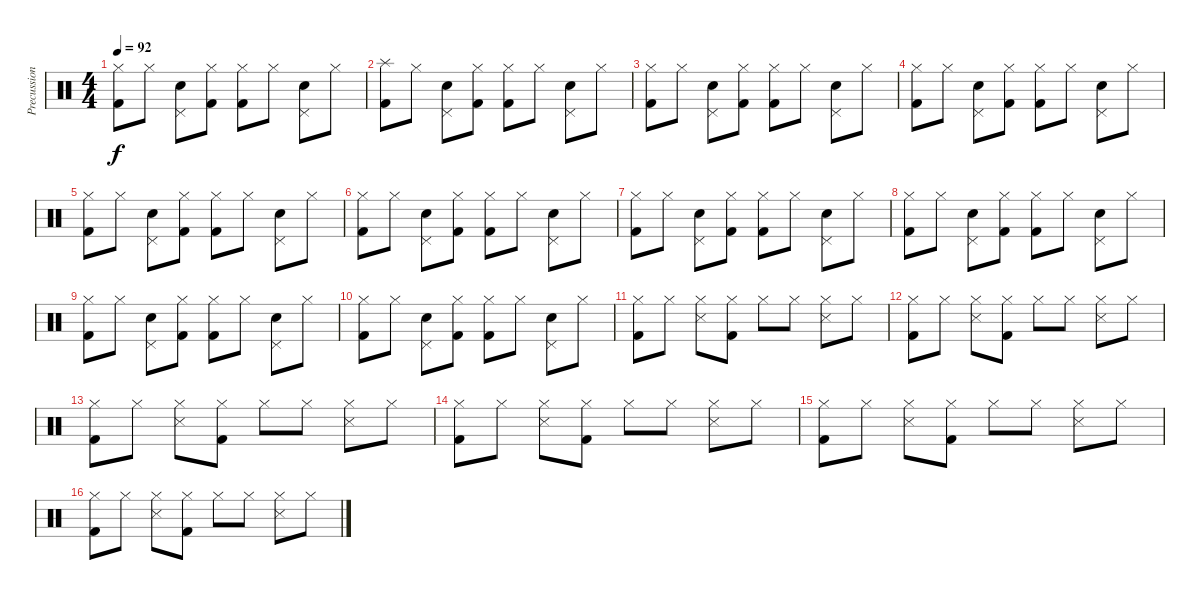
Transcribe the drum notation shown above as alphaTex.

\track ("Precussion" "Precussion") {instrument percussion}
\staff {score}
\articulation defaults
\ts (4 4)
\tempo 92
\clef neutral
\ks c
("Hi-Hat (closed)" "Kick (hit) 2").8{dy f} "Hi-Hat (closed)".8 ("Pedal Hi-Hat (hit)" "Snare (hit) 2").8 ("Hi-Hat (closed)" "Kick (hit) 2").8 ("Hi-Hat (closed)" "Kick (hit) 2").8 "Hi-Hat (closed)".8 ("Pedal Hi-Hat (hit)" "Snare (hit) 2").8 "Hi-Hat (closed)".8 |
("Splash (hit)" "Kick (hit) 2").8 "Hi-Hat (closed)".8 ("Pedal Hi-Hat (hit)" "Snare (hit) 2").8 ("Hi-Hat (closed)" "Kick (hit) 2").8 ("Hi-Hat (closed)" "Kick (hit) 2").8 "Hi-Hat (closed)".8 ("Pedal Hi-Hat (hit)" "Snare (hit) 2").8 "Hi-Hat (closed)".8 |
("Hi-Hat (closed)" "Kick (hit) 2").8 "Hi-Hat (closed)".8 ("Pedal Hi-Hat (hit)" "Snare (hit) 2").8 ("Hi-Hat (closed)" "Kick (hit) 2").8 ("Hi-Hat (closed)" "Kick (hit) 2").8 "Hi-Hat (closed)".8 ("Pedal Hi-Hat (hit)" "Snare (hit) 2").8 "Hi-Hat (closed)".8 |
("Hi-Hat (closed)" "Kick (hit) 2").8 "Hi-Hat (closed)".8 ("Pedal Hi-Hat (hit)" "Snare (hit) 2").8 ("Hi-Hat (closed)" "Kick (hit) 2").8 ("Hi-Hat (closed)" "Kick (hit) 2").8 "Hi-Hat (closed)".8 ("Pedal Hi-Hat (hit)" "Snare (hit) 2").8 "Hi-Hat (closed)".8 |
("Hi-Hat (closed)" "Kick (hit) 2").8 "Hi-Hat (closed)".8 ("Pedal Hi-Hat (hit)" "Snare (hit) 2").8 ("Hi-Hat (closed)" "Kick (hit) 2").8 ("Hi-Hat (closed)" "Kick (hit) 2").8 "Hi-Hat (closed)".8 ("Pedal Hi-Hat (hit)" "Snare (hit) 2").8 "Hi-Hat (closed)".8 |
("Hi-Hat (closed)" "Kick (hit) 2").8 "Hi-Hat (closed)".8 ("Pedal Hi-Hat (hit)" "Snare (hit) 2").8 ("Hi-Hat (closed)" "Kick (hit) 2").8 ("Hi-Hat (closed)" "Kick (hit) 2").8 "Hi-Hat (closed)".8 ("Pedal Hi-Hat (hit)" "Snare (hit) 2").8 "Hi-Hat (closed)".8 |
("Hi-Hat (closed)" "Kick (hit) 2").8 "Hi-Hat (closed)".8 ("Pedal Hi-Hat (hit)" "Snare (hit) 2").8 ("Hi-Hat (closed)" "Kick (hit) 2").8 ("Hi-Hat (closed)" "Kick (hit) 2").8 "Hi-Hat (closed)".8 ("Pedal Hi-Hat (hit)" "Snare (hit) 2").8 "Hi-Hat (closed)".8 |
("Hi-Hat (closed)" "Kick (hit) 2").8 "Hi-Hat (closed)".8 ("Pedal Hi-Hat (hit)" "Snare (hit) 2").8 ("Hi-Hat (closed)" "Kick (hit) 2").8 ("Hi-Hat (closed)" "Kick (hit) 2").8 "Hi-Hat (closed)".8 ("Pedal Hi-Hat (hit)" "Snare (hit) 2").8 "Hi-Hat (closed)".8 |
("Hi-Hat (closed)" "Kick (hit) 2").8 "Hi-Hat (closed)".8 ("Pedal Hi-Hat (hit)" "Snare (hit) 2").8 ("Hi-Hat (closed)" "Kick (hit) 2").8 ("Hi-Hat (closed)" "Kick (hit) 2").8 "Hi-Hat (closed)".8 ("Pedal Hi-Hat (hit)" "Snare (hit) 2").8 "Hi-Hat (closed)".8 |
("Hi-Hat (closed)" "Kick (hit) 2").8 "Hi-Hat (closed)".8 ("Pedal Hi-Hat (hit)" "Snare (hit) 2").8 ("Hi-Hat (closed)" "Kick (hit) 2").8 ("Hi-Hat (closed)" "Kick (hit) 2").8 "Hi-Hat (closed)".8 ("Pedal Hi-Hat (hit)" "Snare (hit) 2").8 "Hi-Hat (closed)".8 |
("Hi-Hat (closed)" "Kick (hit) 2").8 "Hi-Hat (closed)".8 ("Hi-Hat (closed)" "Snare (side stick) 3").8 ("Hi-Hat (closed)" "Kick (hit) 2").8 "Hi-Hat (closed)".8 "Hi-Hat (closed)".8 ("Hi-Hat (closed)" "Snare (side stick) 3").8 "Hi-Hat (closed)".8 |
("Hi-Hat (closed)" "Kick (hit) 2").8 "Hi-Hat (closed)".8 ("Hi-Hat (closed)" "Snare (side stick) 3").8 ("Hi-Hat (closed)" "Kick (hit) 2").8 "Hi-Hat (closed)".8 "Hi-Hat (closed)".8 ("Hi-Hat (closed)" "Snare (side stick) 3").8 "Hi-Hat (closed)".8 |
("Hi-Hat (closed)" "Kick (hit) 2").8 "Hi-Hat (closed)".8 ("Hi-Hat (closed)" "Snare (side stick) 3").8 ("Hi-Hat (closed)" "Kick (hit) 2").8 "Hi-Hat (closed)".8 "Hi-Hat (closed)".8 ("Hi-Hat (closed)" "Snare (side stick) 3").8 "Hi-Hat (closed)".8 |
("Hi-Hat (closed)" "Kick (hit) 2").8 "Hi-Hat (closed)".8 ("Hi-Hat (closed)" "Snare (side stick) 3").8 ("Hi-Hat (closed)" "Kick (hit) 2").8 "Hi-Hat (closed)".8 "Hi-Hat (closed)".8 ("Hi-Hat (closed)" "Snare (side stick) 3").8 "Hi-Hat (closed)".8 |
("Hi-Hat (closed)" "Kick (hit) 2").8 "Hi-Hat (closed)".8 ("Hi-Hat (closed)" "Snare (side stick) 3").8 ("Hi-Hat (closed)" "Kick (hit) 2").8 "Hi-Hat (closed)".8 "Hi-Hat (closed)".8 ("Hi-Hat (closed)" "Snare (side stick) 3").8 "Hi-Hat (closed)".8 |
("Hi-Hat (closed)" "Kick (hit) 2").8 "Hi-Hat (closed)".8 ("Hi-Hat (closed)" "Snare (side stick) 3").8 ("Hi-Hat (closed)" "Kick (hit) 2").8 "Hi-Hat (closed)".8 "Hi-Hat (closed)".8 ("Hi-Hat (closed)" "Snare (side stick) 3").8 "Hi-Hat (closed)".8
